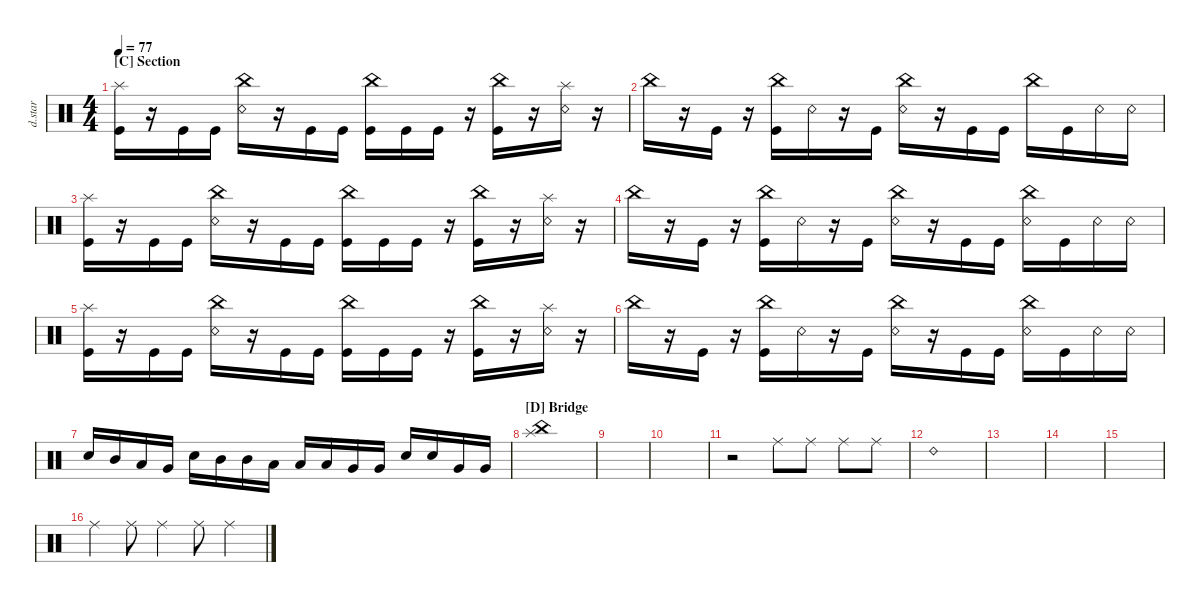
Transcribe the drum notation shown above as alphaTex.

\defaultSystemsLayout 4
\hideDynamics
\bracketExtendMode nobrackets
\otherSystemsTrackNameOrientation horizontal
\track ("Drumkit Star" "d.star") {instrument percussion}
\staff {score}
\articulation defaults
\ts (4 4)
\section ("C" "Section")
\tempo 77
\clef neutral
\ks c
("Kick (hit)" "Splash (hit)").16{dy ff} r.16 "Kick (hit)".16 "Kick (hit)".16 ("Snare (rim shot)" "China (hit)").16 r.16 "Kick (hit)".16 "Kick (hit)".16 ("Kick (hit)" "China (hit)").16 "Kick (hit)".16 "Kick (hit)".16 r.16 ("Kick (hit)" "China (hit)").16 r.16 ("Snare (rim shot)" "Splash (hit)").16 r.16 |
"China (hit)".16 r.16 "Kick (hit)".16 r.16 ("Kick (hit)" "China (hit)").16 "Snare (rim shot)".16 r.16 "Kick (hit)".16 ("China (hit)" "Snare (rim shot)").16 r.16 "Kick (hit)".16 "Kick (hit)".16 "China (hit)".16 "Kick (hit)".16 "Snare (rim shot)".16 "Snare (rim shot)".16 |
("Kick (hit)" "Splash (hit)").16 r.16 "Kick (hit)".16 "Kick (hit)".16 ("Snare (rim shot)" "China (hit)").16 r.16 "Kick (hit)".16 "Kick (hit)".16 ("Kick (hit)" "China (hit)").16 "Kick (hit)".16 "Kick (hit)".16 r.16 ("Kick (hit)" "China (hit)").16 r.16 ("Snare (rim shot)" "Splash (hit)").16 r.16 |
"China (hit)".16 r.16 "Kick (hit)".16 r.16 ("Kick (hit)" "China (hit)").16 "Snare (rim shot)".16 r.16 "Kick (hit)".16 ("China (hit)" "Snare (rim shot)").16 r.16 "Kick (hit)".16 "Kick (hit)".16 ("China (hit)" "Snare (rim shot)").16 "Kick (hit)".16 "Snare (rim shot)".16 "Snare (rim shot)".16 |
("Kick (hit)" "Splash (hit)").16 r.16 "Kick (hit)".16 "Kick (hit)".16 ("Snare (rim shot)" "China (hit)").16 r.16 "Kick (hit)".16 "Kick (hit)".16 ("Kick (hit)" "China (hit)").16 "Kick (hit)".16 "Kick (hit)".16 r.16 ("Kick (hit)" "China (hit)").16 r.16 ("Snare (rim shot)" "Splash (hit)").16 r.16 |
"China (hit)".16 r.16 "Kick (hit)".16 r.16 ("Kick (hit)" "China (hit)").16 "Snare (rim shot)".16 r.16 "Kick (hit)".16 ("China (hit)" "Snare (rim shot)").16 r.16 "Kick (hit)".16 "Kick (hit)".16 ("China (hit)" "Snare (rim shot)").16 "Kick (hit)".16 "Snare (rim shot)".16 "Snare (rim shot)".16 |
"Snare (hit) 2".16 "Mid Tom (hit)".16 "Low Tom (hit)".16 "Very Low Tom (hit)".16 "Snare (hit) 2".16 "Mid Tom (hit)".16 "Mid Tom (hit)".16 "Low Tom (hit)".16 "Low Tom (hit)".16 "Low Tom (hit)".16 "Very Low Tom (hit)".16 "Very Low Tom (hit)".16 "Snare (hit) 2".16 "Snare (hit) 2".16 "Very Low Tom (hit)".16 "Very Low Tom (hit)".16 |
\section ("D" "Bridge")
("Splash (hit)" "China (hit)").1{dy f} |
|
|
r.2 "Ride (middle)".8{dy p} "Ride (middle)".8 "Ride (middle)".8 "Ride (middle)".8 |
"Ride (bell) 2".1 |
|
|
|
"Ride (middle)".4 "Ride (middle)".8 "Ride (middle)".4 "Ride (middle)".8 "Ride (middle)".4
